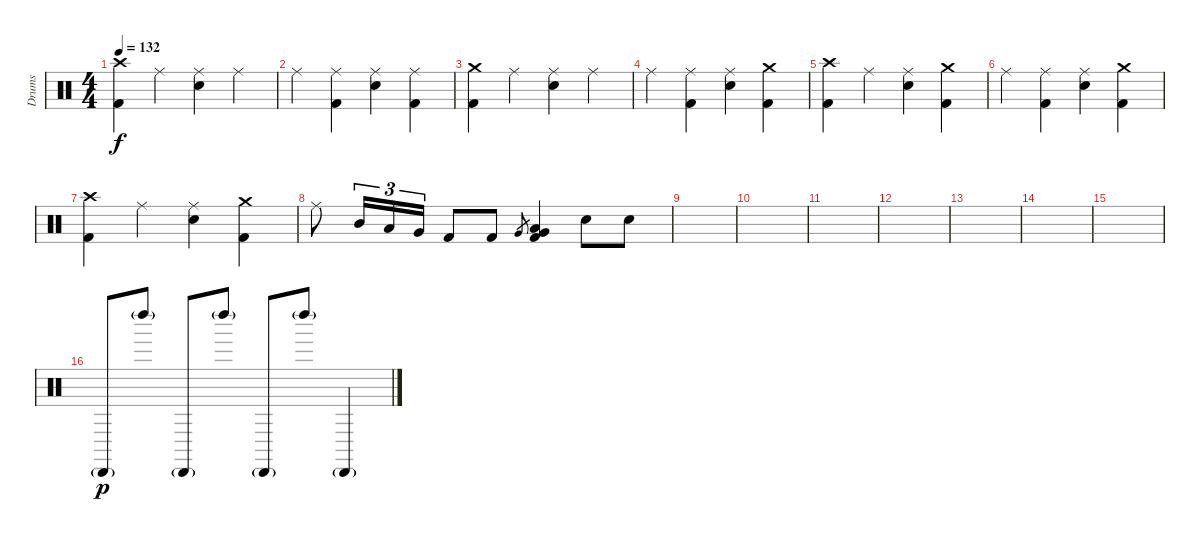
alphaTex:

\track ("Drums" "Drums") {instrument percussion}
\staff {score}
\articulation defaults
\ts (4 4)
\tempo 132
\clef neutral
\ks c
("Crash high (hit)" "Kick (hit) 2").4{dy f} "Ride (middle)".4 ("Ride (middle)" "Electric Snare (hit)").4 "Ride (middle)".4 |
"Ride (middle)".4 ("Ride (middle)" "Kick (hit) 2").4 ("Ride (middle)" "Electric Snare (hit)").4 ("Ride (middle)" "Kick (hit) 2").4 |
("Crash medium (hit)" "Kick (hit) 2").4 "Ride (middle)".4 ("Ride (middle)" "Electric Snare (hit)").4 "Ride (middle)".4 |
"Ride (middle)".4 ("Ride (middle)" "Kick (hit) 2").4 ("Ride (middle)" "Electric Snare (hit)").4 ("Crash medium (hit)" "Kick (hit) 2").4 |
("Crash high (hit)" "Kick (hit) 2").4 "Ride (middle)".4 ("Ride (middle)" "Electric Snare (hit)").4 ("Crash medium (hit)" "Kick (hit) 2").4 |
"Ride (middle)".4 ("Ride (middle)" "Kick (hit) 2").4 ("Ride (middle)" "Electric Snare (hit)").4 ("Crash medium (hit)" "Kick (hit) 2").4 |
("Crash high (hit)" "Kick (hit) 2").4 "Ride (middle)".4 ("Ride (middle)" "Electric Snare (hit)").4 ("Crash medium (hit)" "Kick (hit) 2").4 |
"Ride (middle)".8 "Mid Tom (hit)".16{tu (3 2)} "Low Tom (hit)".16{tu (3 2)} "Very Low Tom (hit)".16{tu (3 2)} "Kick (hit) 2".8 "Kick (hit) 2".8 "Very Low Tom (hit)".8{gr} ("Very Low Tom (hit)" "Low Floor Tom (hit)" "Kick (hit) 2").4 "Electric Snare (hit)".8 "Electric Snare (hit)".8 |
|
|
|
|
|
|
|
"Cabasa (hit)"{g}.8{dy p} "Left Maraca (hit)"{g}.8 "Cabasa (hit)"{g}.8 "Left Maraca (hit)"{g}.8 "Cabasa (hit)"{g}.8 "Left Maraca (hit)"{g}.8 "Cabasa (hit)"{g}.4
